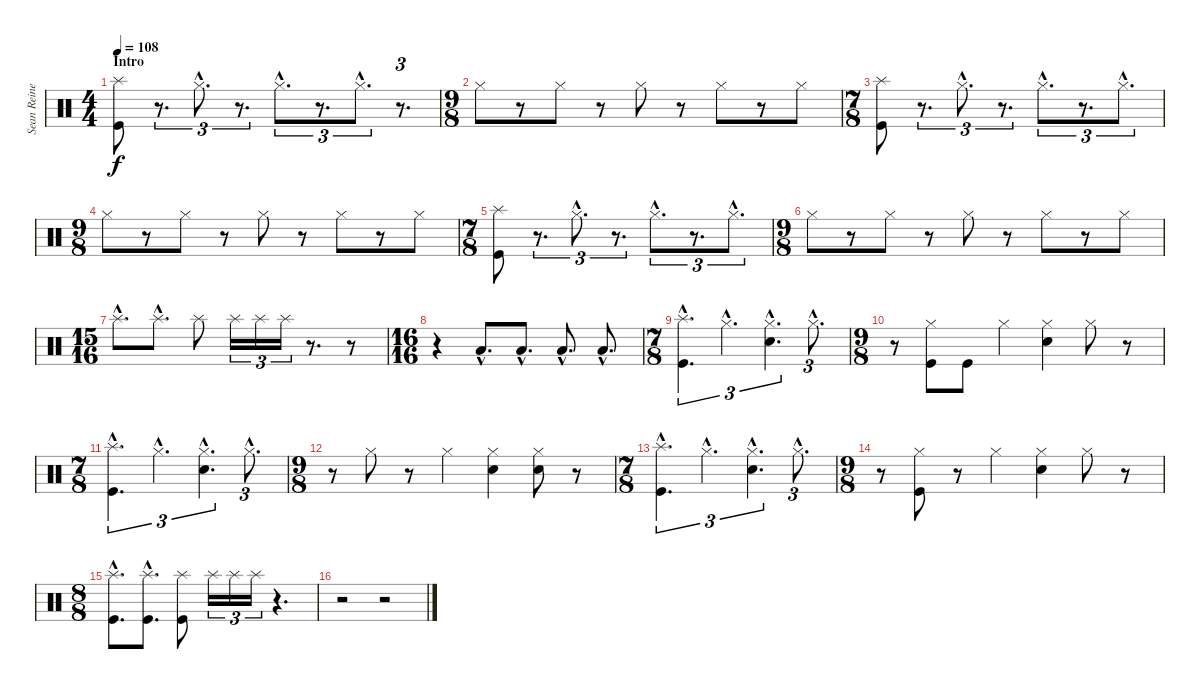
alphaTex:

\track ("Sean Reinert" "Sean Reine") {instrument percussion}
\staff {score}
\articulation defaults
\ts (4 4)
\section ("" "Intro")
\tempo 108
\clef neutral
\ks c
("Splash (hit)" "Kick (hit)").8{dy f volume 14} r.8{d tu (3 2)} "Hi-Hat (closed)"{hac}.8{d tu (3 2) volume 7} r.8{d tu (3 2)} "Hi-Hat (closed)"{hac}.8{d tu (3 2)} r.8{d tu (3 2)} "Hi-Hat (closed)"{hac}.8{d tu (3 2)} r.8{d tu (3 2)} |
\ts (9 8)
"Hi-Hat (closed)".8{volume 7} r.8 "Hi-Hat (closed)".8 r.8 "Hi-Hat (closed)".8 r.8 "Hi-Hat (closed)".8 r.8 "Hi-Hat (closed)".8 |
\ts (7 8)
("Splash (hit)" "Kick (hit)").8{volume 14} r.8{d tu (3 2)} "Hi-Hat (closed)"{hac}.8{d tu (3 2) volume 7} r.8{d tu (3 2)} "Hi-Hat (closed)"{hac}.8{d tu (3 2)} r.8{d tu (3 2)} "Hi-Hat (closed)"{hac}.8{d tu (3 2)} |
\ts (9 8)
"Hi-Hat (closed)".8{volume 7} r.8 "Hi-Hat (closed)".8 r.8 "Hi-Hat (closed)".8 r.8 "Hi-Hat (closed)".8 r.8 "Hi-Hat (closed)".8 |
\ts (7 8)
("Splash (hit)" "Kick (hit)").8{volume 14} r.8{d tu (3 2)} "Hi-Hat (closed)"{hac}.8{d tu (3 2) volume 7} r.8{d tu (3 2)} "Hi-Hat (closed)"{hac}.8{d tu (3 2)} r.8{d tu (3 2)} "Hi-Hat (closed)"{hac}.8{d tu (3 2)} |
\ts (9 8)
"Hi-Hat (closed)".8{volume 7} r.8 "Hi-Hat (closed)".8 r.8 "Hi-Hat (closed)".8 r.8 "Hi-Hat (closed)".8 r.8 "Hi-Hat (closed)".8 |
\ts (15 16)
"Splash (hit)"{hac}.8{d} "Splash (hit)"{hac}.8{d} "Splash (hit)".8 "Splash (hit)".16{tu (3 2)} "Splash (hit)".16{tu (3 2)} "Splash (hit)".16{tu (3 2)} r.8{d} r.8 |
\ts (16 16)
r.4 "Low Floor Tom (hit)"{hac}.8{d volume 9} "Low Floor Tom (hit)"{hac}.8{d} "Low Floor Tom (hit)"{hac}.8{d volume 14} "Low Floor Tom (hit)"{hac}.8{d} |
\ts (7 8)
("Splash (hit)"{hac} "Kick (hit)"{hac}).4{d tu (3 2)} "Hi-Hat (closed)"{hac}.4{d tu (3 2)} ("Hi-Hat (closed)"{hac} "Snare (hit) 2"{hac}).4{d tu (3 2)} "Hi-Hat (closed)"{hac}.8{d tu (3 2)} |
\ts (9 8)
r.8 ("Hi-Hat (closed)" "Kick (hit)").8 "Kick (hit)".8 "Hi-Hat (closed)".4 ("Hi-Hat (closed)" "Snare (hit) 2").4 "Hi-Hat (closed)".8 r.8 |
\ts (7 8)
("Splash (hit)"{hac} "Kick (hit)"{hac}).4{d tu (3 2)} "Hi-Hat (closed)"{hac}.4{d tu (3 2)} ("Hi-Hat (closed)"{hac} "Snare (hit) 2"{hac}).4{d tu (3 2)} "Hi-Hat (closed)"{hac}.8{d tu (3 2)} |
\ts (9 8)
r.8 "Hi-Hat (closed)".8 r.8 "Hi-Hat (closed)".4 ("Hi-Hat (closed)" "Snare (hit) 2").4 ("Hi-Hat (closed)" "Snare (hit) 2").8 r.8 |
\ts (7 8)
("Splash (hit)"{hac} "Kick (hit)"{hac}).4{d tu (3 2)} "Hi-Hat (closed)"{hac}.4{d tu (3 2)} ("Hi-Hat (closed)"{hac} "Snare (hit) 2"{hac}).4{d tu (3 2)} "Hi-Hat (closed)"{hac}.8{d tu (3 2)} |
\ts (9 8)
r.8 ("Hi-Hat (closed)" "Kick (hit)").8 r.8 "Hi-Hat (closed)".4 ("Hi-Hat (closed)" "Snare (hit) 2").4 "Hi-Hat (closed)".8 r.8 |
\ts (8 8)
("Splash (hit)"{hac} "Kick (hit)"{hac}).8{d} ("Splash (hit)"{hac} "Kick (hit)"{hac}).8{d} ("Splash (hit)" "Kick (hit)").8 "Splash (hit)".16{tu (3 2)} "Splash (hit)".16{tu (3 2)} "Splash (hit)".16{tu (3 2)} r.4{d} |
r.2 r.2
